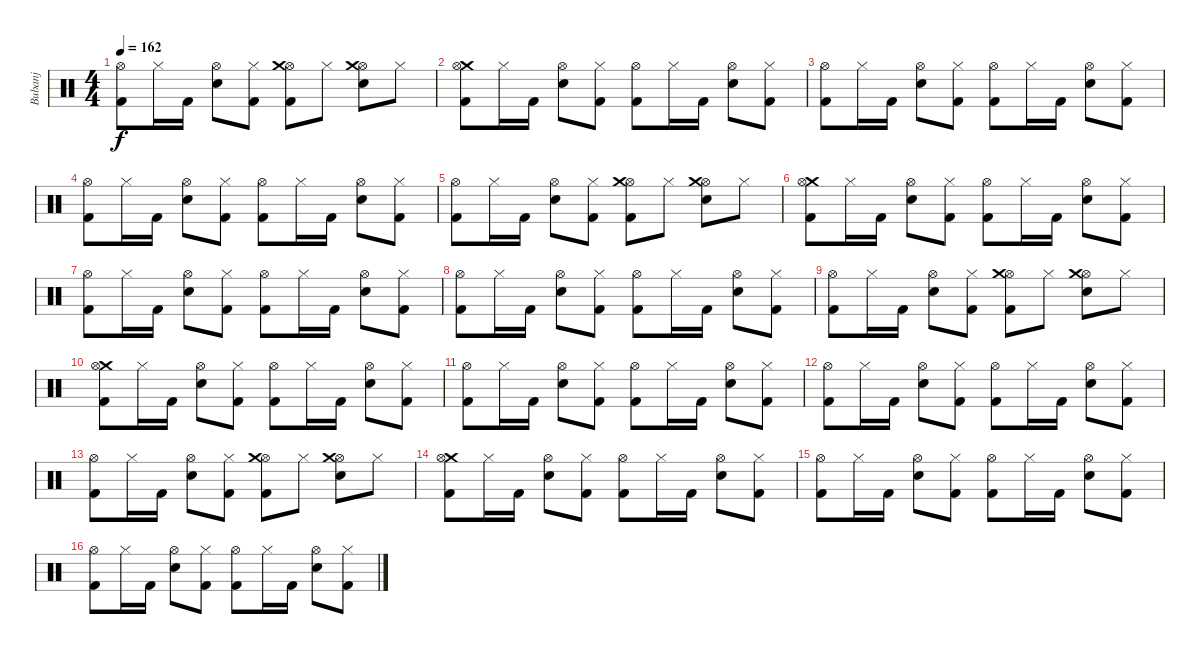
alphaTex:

\track ("Bubanj" "Bubanj") {instrument percussion}
\staff {score}
\articulation defaults
\ts (4 4)
\tempo 162
\clef neutral
\ks c
("Hi-Hat (open)" "Kick (hit) 2").8{dy f} "Hi-Hat (closed)".16 "Kick (hit) 2".16 ("Hi-Hat (open)" "Snare (hit) 2").8 ("Hi-Hat (closed)" "Kick (hit) 2").8 ("Hi-Hat (open)" "Kick (hit) 2" "Crash medium (hit)").8 "Hi-Hat (closed)".8 ("Hi-Hat (open)" "Snare (hit) 2" "Crash medium (hit)").8 "Hi-Hat (closed)".8 |
("Crash medium (hit)" "Kick (hit) 2" "Hi-Hat (open)").8 "Hi-Hat (closed)".16 "Kick (hit) 2".16 ("Hi-Hat (open)" "Snare (hit) 2").8 ("Hi-Hat (closed)" "Kick (hit) 2").8 ("Hi-Hat (open)" "Kick (hit) 2").8 "Hi-Hat (closed)".16 "Kick (hit) 2".16 ("Hi-Hat (open)" "Snare (hit) 2").8 ("Hi-Hat (closed)" "Kick (hit) 2").8 |
("Hi-Hat (open)" "Kick (hit) 2").8 "Hi-Hat (closed)".16 "Kick (hit) 2".16 ("Hi-Hat (open)" "Snare (hit) 2").8 ("Hi-Hat (closed)" "Kick (hit) 2").8 ("Hi-Hat (open)" "Kick (hit) 2").8 "Hi-Hat (closed)".16 "Kick (hit) 2".16 ("Hi-Hat (open)" "Snare (hit) 2").8 ("Hi-Hat (closed)" "Kick (hit) 2").8 |
("Hi-Hat (open)" "Kick (hit) 2").8 "Hi-Hat (closed)".16 "Kick (hit) 2".16 ("Hi-Hat (open)" "Snare (hit) 2").8 ("Hi-Hat (closed)" "Kick (hit) 2").8 ("Hi-Hat (open)" "Kick (hit) 2").8 "Hi-Hat (closed)".16 "Kick (hit) 2".16 ("Hi-Hat (open)" "Snare (hit) 2").8 ("Hi-Hat (closed)" "Kick (hit) 2").8 |
("Hi-Hat (open)" "Kick (hit) 2").8 "Hi-Hat (closed)".16 "Kick (hit) 2".16 ("Hi-Hat (open)" "Snare (hit) 2").8 ("Hi-Hat (closed)" "Kick (hit) 2").8 ("Hi-Hat (open)" "Kick (hit) 2" "Crash medium (hit)").8 "Hi-Hat (closed)".8 ("Hi-Hat (open)" "Snare (hit) 2" "Crash medium (hit)").8 "Hi-Hat (closed)".8 |
("Crash medium (hit)" "Kick (hit) 2" "Hi-Hat (open)").8 "Hi-Hat (closed)".16 "Kick (hit) 2".16 ("Hi-Hat (open)" "Snare (hit) 2").8 ("Hi-Hat (closed)" "Kick (hit) 2").8 ("Hi-Hat (open)" "Kick (hit) 2").8 "Hi-Hat (closed)".16 "Kick (hit) 2".16 ("Hi-Hat (open)" "Snare (hit) 2").8 ("Hi-Hat (closed)" "Kick (hit) 2").8 |
("Hi-Hat (open)" "Kick (hit) 2").8 "Hi-Hat (closed)".16 "Kick (hit) 2".16 ("Hi-Hat (open)" "Snare (hit) 2").8 ("Hi-Hat (closed)" "Kick (hit) 2").8 ("Hi-Hat (open)" "Kick (hit) 2").8 "Hi-Hat (closed)".16 "Kick (hit) 2".16 ("Hi-Hat (open)" "Snare (hit) 2").8 ("Hi-Hat (closed)" "Kick (hit) 2").8 |
("Hi-Hat (open)" "Kick (hit) 2").8 "Hi-Hat (closed)".16 "Kick (hit) 2".16 ("Hi-Hat (open)" "Snare (hit) 2").8 ("Hi-Hat (closed)" "Kick (hit) 2").8 ("Hi-Hat (open)" "Kick (hit) 2").8 "Hi-Hat (closed)".16 "Kick (hit) 2".16 ("Hi-Hat (open)" "Snare (hit) 2").8 ("Hi-Hat (closed)" "Kick (hit) 2").8 |
("Hi-Hat (open)" "Kick (hit) 2").8 "Hi-Hat (closed)".16 "Kick (hit) 2".16 ("Hi-Hat (open)" "Snare (hit) 2").8 ("Hi-Hat (closed)" "Kick (hit) 2").8 ("Hi-Hat (open)" "Kick (hit) 2" "Crash medium (hit)").8 "Hi-Hat (closed)".8 ("Hi-Hat (open)" "Snare (hit) 2" "Crash medium (hit)").8 "Hi-Hat (closed)".8 |
("Crash medium (hit)" "Kick (hit) 2" "Hi-Hat (open)").8 "Hi-Hat (closed)".16 "Kick (hit) 2".16 ("Hi-Hat (open)" "Snare (hit) 2").8 ("Hi-Hat (closed)" "Kick (hit) 2").8 ("Hi-Hat (open)" "Kick (hit) 2").8 "Hi-Hat (closed)".16 "Kick (hit) 2".16 ("Hi-Hat (open)" "Snare (hit) 2").8 ("Hi-Hat (closed)" "Kick (hit) 2").8 |
("Hi-Hat (open)" "Kick (hit) 2").8 "Hi-Hat (closed)".16 "Kick (hit) 2".16 ("Hi-Hat (open)" "Snare (hit) 2").8 ("Hi-Hat (closed)" "Kick (hit) 2").8 ("Hi-Hat (open)" "Kick (hit) 2").8 "Hi-Hat (closed)".16 "Kick (hit) 2".16 ("Hi-Hat (open)" "Snare (hit) 2").8 ("Hi-Hat (closed)" "Kick (hit) 2").8 |
("Hi-Hat (open)" "Kick (hit) 2").8 "Hi-Hat (closed)".16 "Kick (hit) 2".16 ("Hi-Hat (open)" "Snare (hit) 2").8 ("Hi-Hat (closed)" "Kick (hit) 2").8 ("Hi-Hat (open)" "Kick (hit) 2").8 "Hi-Hat (closed)".16 "Kick (hit) 2".16 ("Hi-Hat (open)" "Snare (hit) 2").8 ("Hi-Hat (closed)" "Kick (hit) 2").8 |
("Hi-Hat (open)" "Kick (hit) 2").8 "Hi-Hat (closed)".16 "Kick (hit) 2".16 ("Hi-Hat (open)" "Snare (hit) 2").8 ("Hi-Hat (closed)" "Kick (hit) 2").8 ("Hi-Hat (open)" "Kick (hit) 2" "Crash medium (hit)").8 "Hi-Hat (closed)".8 ("Hi-Hat (open)" "Snare (hit) 2" "Crash medium (hit)").8 "Hi-Hat (closed)".8 |
("Crash medium (hit)" "Kick (hit) 2" "Hi-Hat (open)").8 "Hi-Hat (closed)".16 "Kick (hit) 2".16 ("Hi-Hat (open)" "Snare (hit) 2").8 ("Hi-Hat (closed)" "Kick (hit) 2").8 ("Hi-Hat (open)" "Kick (hit) 2").8 "Hi-Hat (closed)".16 "Kick (hit) 2".16 ("Hi-Hat (open)" "Snare (hit) 2").8 ("Hi-Hat (closed)" "Kick (hit) 2").8 |
("Hi-Hat (open)" "Kick (hit) 2").8 "Hi-Hat (closed)".16 "Kick (hit) 2".16 ("Hi-Hat (open)" "Snare (hit) 2").8 ("Hi-Hat (closed)" "Kick (hit) 2").8 ("Hi-Hat (open)" "Kick (hit) 2").8 "Hi-Hat (closed)".16 "Kick (hit) 2".16 ("Hi-Hat (open)" "Snare (hit) 2").8 ("Hi-Hat (closed)" "Kick (hit) 2").8 |
("Hi-Hat (open)" "Kick (hit) 2").8 "Hi-Hat (closed)".16 "Kick (hit) 2".16 ("Hi-Hat (open)" "Snare (hit) 2").8 ("Hi-Hat (closed)" "Kick (hit) 2").8 ("Hi-Hat (open)" "Kick (hit) 2").8 "Hi-Hat (closed)".16 "Kick (hit) 2".16 ("Hi-Hat (open)" "Snare (hit) 2").8 ("Hi-Hat (closed)" "Kick (hit) 2").8
